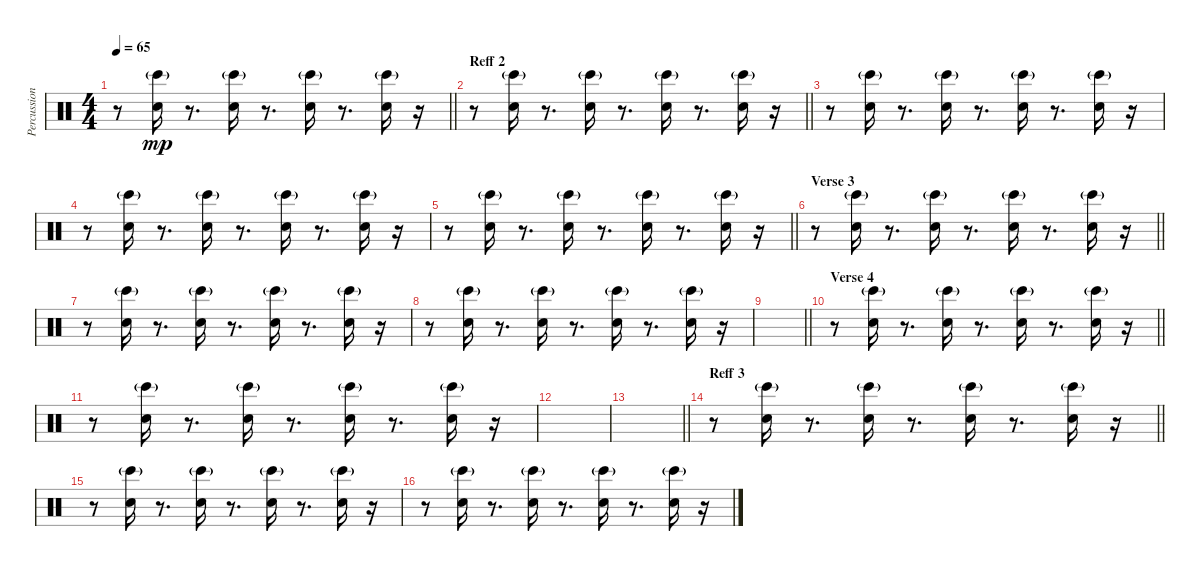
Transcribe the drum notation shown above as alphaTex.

\track ("Percussion 2 (Clap)" "Percussion") {instrument percussion}
\staff {score}
\articulation defaults
\ts (4 4)
\tempo 65
\clef neutral
\barLineRight lightlight
\ks c
r.8{dy mp} ("Hand Clap (hit)" "Bongo High (hit)"{g}).16 r.8{d} ("Hand Clap (hit)" "Bongo High (hit)"{g}).16 r.8{d} ("Hand Clap (hit)" "Bongo High (hit)"{g}).16 r.8{d} ("Hand Clap (hit)" "Bongo High (hit)"{g}).16 r.16 |
\section ("" "Reff 2")
\barLineRight lightlight
r.8 ("Hand Clap (hit)" "Bongo High (hit)"{g}).16 r.8{d} ("Hand Clap (hit)" "Bongo High (hit)"{g}).16 r.8{d} ("Hand Clap (hit)" "Bongo High (hit)"{g}).16 r.8{d} ("Hand Clap (hit)" "Bongo High (hit)"{g}).16 r.16 |
r.8 ("Hand Clap (hit)" "Bongo High (hit)"{g}).16 r.8{d} ("Hand Clap (hit)" "Bongo High (hit)"{g}).16 r.8{d} ("Hand Clap (hit)" "Bongo High (hit)"{g}).16 r.8{d} ("Hand Clap (hit)" "Bongo High (hit)"{g}).16 r.16 |
r.8 ("Hand Clap (hit)" "Bongo High (hit)"{g}).16 r.8{d} ("Hand Clap (hit)" "Bongo High (hit)"{g}).16 r.8{d} ("Hand Clap (hit)" "Bongo High (hit)"{g}).16 r.8{d} ("Hand Clap (hit)" "Bongo High (hit)"{g}).16 r.16 |
\barLineRight lightlight
r.8 ("Hand Clap (hit)" "Bongo High (hit)"{g}).16 r.8{d} ("Hand Clap (hit)" "Bongo High (hit)"{g}).16 r.8{d} ("Hand Clap (hit)" "Bongo High (hit)"{g}).16 r.8{d} ("Hand Clap (hit)" "Bongo High (hit)"{g}).16 r.16 |
\section ("" "Verse 3")
\barLineRight lightlight
r.8 ("Hand Clap (hit)" "Bongo High (hit)"{g}).16 r.8{d} ("Hand Clap (hit)" "Bongo High (hit)"{g}).16 r.8{d} ("Hand Clap (hit)" "Bongo High (hit)"{g}).16 r.8{d} ("Hand Clap (hit)" "Bongo High (hit)"{g}).16 r.16 |
r.8 ("Hand Clap (hit)" "Bongo High (hit)"{g}).16 r.8{d} ("Hand Clap (hit)" "Bongo High (hit)"{g}).16 r.8{d} ("Hand Clap (hit)" "Bongo High (hit)"{g}).16 r.8{d} ("Hand Clap (hit)" "Bongo High (hit)"{g}).16 r.16 |
r.8 ("Hand Clap (hit)" "Bongo High (hit)"{g}).16 r.8{d} ("Hand Clap (hit)" "Bongo High (hit)"{g}).16 r.8{d} ("Hand Clap (hit)" "Bongo High (hit)"{g}).16 r.8{d} ("Hand Clap (hit)" "Bongo High (hit)"{g}).16 r.16 |
\barLineRight lightlight
|
\section ("" "Verse 4")
\barLineRight lightlight
r.8 ("Hand Clap (hit)" "Bongo High (hit)"{g}).16 r.8{d} ("Hand Clap (hit)" "Bongo High (hit)"{g}).16 r.8{d} ("Hand Clap (hit)" "Bongo High (hit)"{g}).16 r.8{d} ("Hand Clap (hit)" "Bongo High (hit)"{g}).16 r.16 |
r.8 ("Hand Clap (hit)" "Bongo High (hit)"{g}).16 r.8{d} ("Hand Clap (hit)" "Bongo High (hit)"{g}).16 r.8{d} ("Hand Clap (hit)" "Bongo High (hit)"{g}).16 r.8{d} ("Hand Clap (hit)" "Bongo High (hit)"{g}).16 r.16 |
|
\barLineRight lightlight
|
\section ("" "Reff 3")
\barLineRight lightlight
r.8 ("Hand Clap (hit)" "Bongo High (hit)"{g}).16 r.8{d} ("Hand Clap (hit)" "Bongo High (hit)"{g}).16 r.8{d} ("Hand Clap (hit)" "Bongo High (hit)"{g}).16 r.8{d} ("Hand Clap (hit)" "Bongo High (hit)"{g}).16 r.16 |
r.8 ("Hand Clap (hit)" "Bongo High (hit)"{g}).16 r.8{d} ("Hand Clap (hit)" "Bongo High (hit)"{g}).16 r.8{d} ("Hand Clap (hit)" "Bongo High (hit)"{g}).16 r.8{d} ("Hand Clap (hit)" "Bongo High (hit)"{g}).16 r.16 |
r.8 ("Hand Clap (hit)" "Bongo High (hit)"{g}).16 r.8{d} ("Hand Clap (hit)" "Bongo High (hit)"{g}).16 r.8{d} ("Hand Clap (hit)" "Bongo High (hit)"{g}).16 r.8{d} ("Hand Clap (hit)" "Bongo High (hit)"{g}).16 r.16
